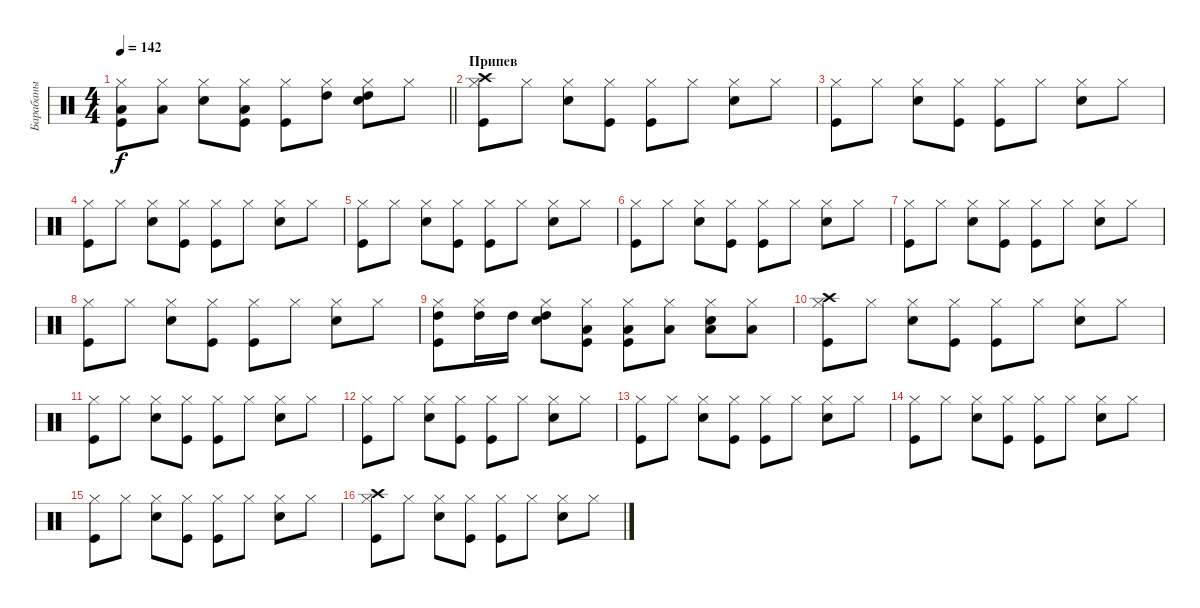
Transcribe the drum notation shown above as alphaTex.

\track ("Барабаны" "Барабаны") {instrument percussion}
\staff {score}
\articulation defaults
\ts (4 4)
\tempo 142
\clef neutral
\barLineRight lightlight
\ks c
("Kick (hit)" "Hi-Hat (closed)" "Low Floor Tom (hit)").8{dy f} ("Hi-Hat (closed)" "Low Floor Tom (hit)").8 ("Snare (hit) 2" "Hi-Hat (closed)").8 ("Kick (hit)" "Hi-Hat (closed)" "Low Floor Tom (hit)").8 ("Kick (hit)" "Hi-Hat (closed)").8 ("Hi-Hat (closed)" "High Tom (hit)").8 ("Snare (hit) 2" "Hi-Hat (closed)" "High Tom (hit)").8 "Hi-Hat (closed)".8 |
\section ("" "Припев")
("Kick (hit)" "Hi-Hat (closed)" "Crash high (hit)").8 "Hi-Hat (closed)".8 ("Snare (hit) 2" "Hi-Hat (closed)").8 ("Kick (hit)" "Hi-Hat (closed)").8 ("Kick (hit)" "Hi-Hat (closed)").8 "Hi-Hat (closed)".8 ("Snare (hit) 2" "Hi-Hat (closed)").8 "Hi-Hat (closed)".8 |
("Kick (hit)" "Hi-Hat (closed)").8 "Hi-Hat (closed)".8 ("Snare (hit) 2" "Hi-Hat (closed)").8 ("Kick (hit)" "Hi-Hat (closed)").8 ("Kick (hit)" "Hi-Hat (closed)").8 "Hi-Hat (closed)".8 ("Snare (hit) 2" "Hi-Hat (closed)").8 "Hi-Hat (closed)".8 |
("Kick (hit)" "Hi-Hat (closed)").8 "Hi-Hat (closed)".8 ("Snare (hit) 2" "Hi-Hat (closed)").8 ("Kick (hit)" "Hi-Hat (closed)").8 ("Kick (hit)" "Hi-Hat (closed)").8 "Hi-Hat (closed)".8 ("Snare (hit) 2" "Hi-Hat (closed)").8 "Hi-Hat (closed)".8 |
("Kick (hit)" "Hi-Hat (closed)").8 "Hi-Hat (closed)".8 ("Snare (hit) 2" "Hi-Hat (closed)").8 ("Kick (hit)" "Hi-Hat (closed)").8 ("Kick (hit)" "Hi-Hat (closed)").8 "Hi-Hat (closed)".8 ("Snare (hit) 2" "Hi-Hat (closed)").8 "Hi-Hat (closed)".8 |
("Kick (hit)" "Hi-Hat (closed)").8 "Hi-Hat (closed)".8 ("Snare (hit) 2" "Hi-Hat (closed)").8 ("Kick (hit)" "Hi-Hat (closed)").8 ("Kick (hit)" "Hi-Hat (closed)").8 "Hi-Hat (closed)".8 ("Snare (hit) 2" "Hi-Hat (closed)").8 "Hi-Hat (closed)".8 |
("Kick (hit)" "Hi-Hat (closed)").8 "Hi-Hat (closed)".8 ("Snare (hit) 2" "Hi-Hat (closed)").8 ("Kick (hit)" "Hi-Hat (closed)").8 ("Kick (hit)" "Hi-Hat (closed)").8 "Hi-Hat (closed)".8 ("Snare (hit) 2" "Hi-Hat (closed)").8 "Hi-Hat (closed)".8 |
("Kick (hit)" "Hi-Hat (closed)").8 "Hi-Hat (closed)".8 ("Snare (hit) 2" "Hi-Hat (closed)").8 ("Kick (hit)" "Hi-Hat (closed)").8 ("Kick (hit)" "Hi-Hat (closed)").8 "Hi-Hat (closed)".8 ("Snare (hit) 2" "Hi-Hat (closed)").8 "Hi-Hat (closed)".8 |
("Kick (hit)" "Hi-Hat (closed)" "High Tom (hit)").8 ("Hi-Hat (closed)" "High Tom (hit)").16 "High Tom (hit)".16 ("Snare (hit) 2" "Hi-Hat (closed)" "High Tom (hit)").8 ("Kick (hit)" "Hi-Hat (closed)" "Low Floor Tom (hit)").8 ("Kick (hit)" "Hi-Hat (closed)" "Low Floor Tom (hit)").8 ("Hi-Hat (closed)" "Low Floor Tom (hit)").8 ("Snare (hit) 2" "Hi-Hat (closed)" "Low Floor Tom (hit)").8 ("Hi-Hat (closed)" "Low Floor Tom (hit)").8 |
("Kick (hit)" "Hi-Hat (closed)" "Crash high (hit)").8 "Hi-Hat (closed)".8 ("Snare (hit) 2" "Hi-Hat (closed)").8 ("Kick (hit)" "Hi-Hat (closed)").8 ("Kick (hit)" "Hi-Hat (closed)").8 "Hi-Hat (closed)".8 ("Snare (hit) 2" "Hi-Hat (closed)").8 "Hi-Hat (closed)".8 |
("Kick (hit)" "Hi-Hat (closed)").8 "Hi-Hat (closed)".8 ("Snare (hit) 2" "Hi-Hat (closed)").8 ("Kick (hit)" "Hi-Hat (closed)").8 ("Kick (hit)" "Hi-Hat (closed)").8 "Hi-Hat (closed)".8 ("Snare (hit) 2" "Hi-Hat (closed)").8 "Hi-Hat (closed)".8 |
("Kick (hit)" "Hi-Hat (closed)").8 "Hi-Hat (closed)".8 ("Snare (hit) 2" "Hi-Hat (closed)").8 ("Kick (hit)" "Hi-Hat (closed)").8 ("Kick (hit)" "Hi-Hat (closed)").8 "Hi-Hat (closed)".8 ("Snare (hit) 2" "Hi-Hat (closed)").8 "Hi-Hat (closed)".8 |
("Kick (hit)" "Hi-Hat (closed)").8 "Hi-Hat (closed)".8 ("Snare (hit) 2" "Hi-Hat (closed)").8 ("Kick (hit)" "Hi-Hat (closed)").8 ("Kick (hit)" "Hi-Hat (closed)").8 "Hi-Hat (closed)".8 ("Snare (hit) 2" "Hi-Hat (closed)").8 "Hi-Hat (closed)".8 |
("Kick (hit)" "Hi-Hat (closed)").8 "Hi-Hat (closed)".8 ("Snare (hit) 2" "Hi-Hat (closed)").8 ("Kick (hit)" "Hi-Hat (closed)").8 ("Kick (hit)" "Hi-Hat (closed)").8 "Hi-Hat (closed)".8 ("Snare (hit) 2" "Hi-Hat (closed)").8 "Hi-Hat (closed)".8 |
("Kick (hit)" "Hi-Hat (closed)").8 "Hi-Hat (closed)".8 ("Snare (hit) 2" "Hi-Hat (closed)").8 ("Kick (hit)" "Hi-Hat (closed)").8 ("Kick (hit)" "Hi-Hat (closed)").8 "Hi-Hat (closed)".8 ("Snare (hit) 2" "Hi-Hat (closed)").8 "Hi-Hat (closed)".8 |
("Kick (hit)" "Hi-Hat (closed)" "Crash high (hit)").8 "Hi-Hat (closed)".8 ("Snare (hit) 2" "Hi-Hat (closed)").8 ("Kick (hit)" "Hi-Hat (closed)").8 ("Kick (hit)" "Hi-Hat (closed)").8 "Hi-Hat (closed)".8 ("Snare (hit) 2" "Hi-Hat (closed)").8 "Hi-Hat (closed)".8
